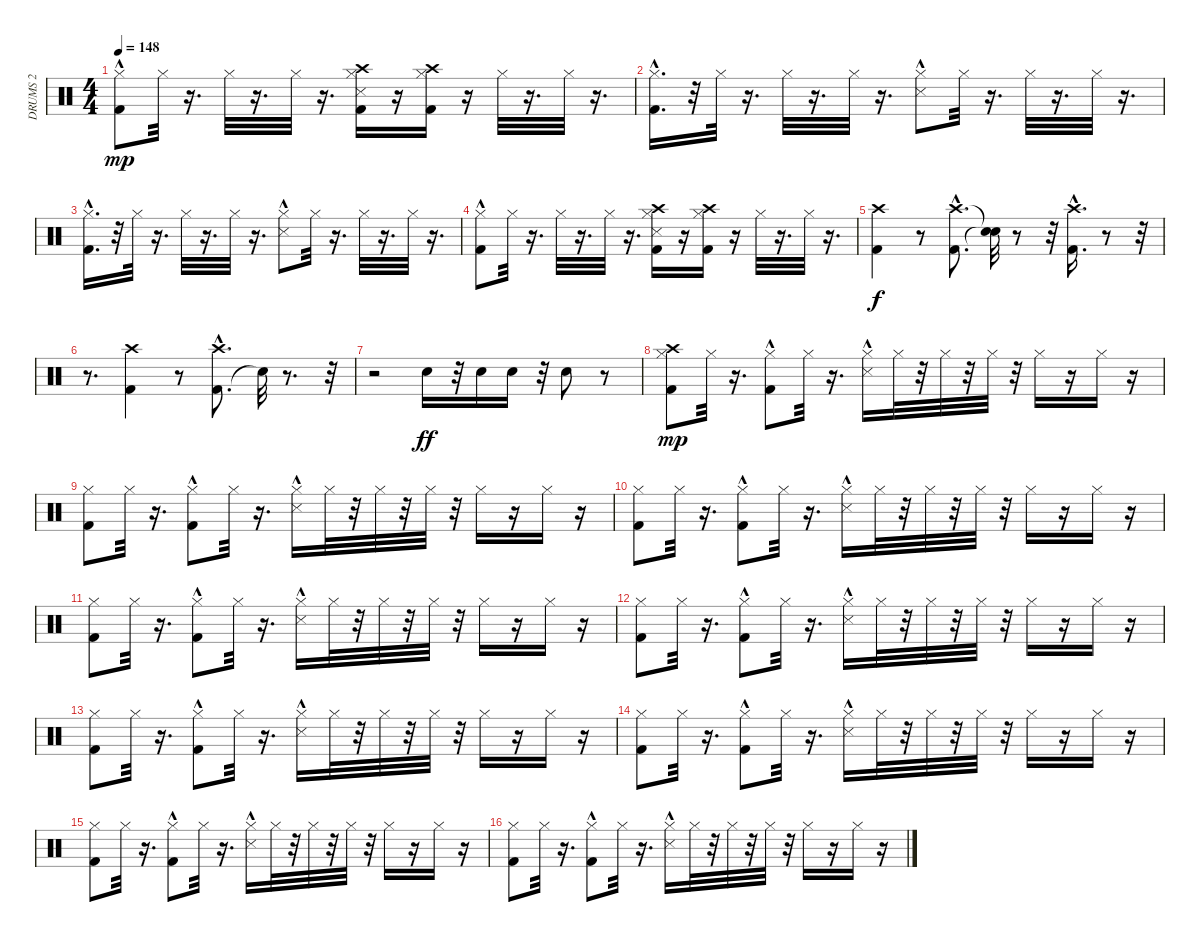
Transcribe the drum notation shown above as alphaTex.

\track ("DRUMS 2" "DRUMS 2") {instrument percussion}
\staff {score}
\articulation defaults
\ts (4 4)
\tempo 148
\clef neutral
\ks c
("Kick (hit) 2"{hac} "Hi-Hat (closed)").8{dy mp} "Hi-Hat (closed)".32 r.16{d} "Hi-Hat (closed)".32 r.16{d} "Hi-Hat (closed)".32 r.16{d} ("Snare (side stick) 3" "Kick (hit) 2" "Hi-Hat (closed)" "Crash high (hit)").16 r.16 ("Kick (hit) 2" "Hi-Hat (closed)" "Crash high (hit)").16 r.16 "Hi-Hat (closed)".32 r.16{d} "Hi-Hat (closed)".32 r.16{d} |
("Kick (hit) 2"{hac} "Hi-Hat (closed)").16{d} r.32 "Hi-Hat (closed)".32 r.16{d} "Hi-Hat (closed)".32 r.16{d} "Hi-Hat (closed)".32 r.16{d} ("Snare (side stick) 3"{hac} "Hi-Hat (closed)").8 "Hi-Hat (closed)".32 r.16{d} "Hi-Hat (closed)".32 r.16{d} "Hi-Hat (closed)".32 r.16{d} |
("Kick (hit) 2"{hac} "Hi-Hat (closed)").16{d} r.32 "Hi-Hat (closed)".32 r.16{d} "Hi-Hat (closed)".32 r.16{d} "Hi-Hat (closed)".32 r.16{d} ("Snare (side stick) 3"{hac} "Hi-Hat (closed)").8 "Hi-Hat (closed)".32 r.16{d} "Hi-Hat (closed)".32 r.16{d} "Hi-Hat (closed)".32 r.16{d} |
("Kick (hit) 2"{hac} "Hi-Hat (closed)").8 "Hi-Hat (closed)".32 r.16{d} "Hi-Hat (closed)".32 r.16{d} "Hi-Hat (closed)".32 r.16{d} ("Snare (side stick) 3" "Kick (hit) 2" "Hi-Hat (closed)" "Crash high (hit)").16 r.16 ("Kick (hit) 2" "Hi-Hat (closed)" "Crash high (hit)").16 r.16 "Hi-Hat (closed)".32 r.16{d} "Hi-Hat (closed)".32 r.16{d} |
("Kick (hit) 2" "Crash high (hit)").4{dy f} r.8 ("Kick (hit) 2"{hac} "Crash high (hit)"{hac}).8{d} ("Snare (hit)"{t} "Snare (hit)"{t}).32 r.8 r.32 ("Kick (hit) 2"{hac} "Crash high (hit)"{hac}).16{d} r.8 r.32 |
r.8{d} ("Kick (hit) 2" "Crash high (hit)").4 r.8 ("Kick (hit) 2"{hac} "Crash high (hit)").8{d} "Snare (hit)"{t}.32 r.8{d} r.32 |
r.2 "Snare (hit) 2".16{dy ff} r.32 "Snare (hit) 2".16 "Snare (hit) 2".16 r.32 "Snare (hit) 2".8 r.8 |
("Kick (hit) 2" "Hi-Hat (closed)" "Crash high (hit)").8{dy mp} "Hi-Hat (closed)".32 r.16{d} ("Kick (hit) 2"{hac} "Hi-Hat (closed)").8 "Hi-Hat (closed)".32 r.16{d} ("Snare (side stick) 3"{hac} "Hi-Hat (closed)").16 "Hi-Hat (closed)".32 r.32 "Hi-Hat (closed)".32 r.32 "Hi-Hat (closed)".32 r.32 "Hi-Hat (closed)".16 r.16 "Hi-Hat (closed)".16 r.16 |
("Kick (hit) 2" "Hi-Hat (closed)").8 "Hi-Hat (closed)".32 r.16{d} ("Kick (hit) 2"{hac} "Hi-Hat (closed)").8 "Hi-Hat (closed)".32 r.16{d} ("Snare (side stick) 3"{hac} "Hi-Hat (closed)").16 "Hi-Hat (closed)".32 r.32 "Hi-Hat (closed)".32 r.32 "Hi-Hat (closed)".32 r.32 "Hi-Hat (closed)".16 r.16 "Hi-Hat (closed)".16 r.16 |
("Kick (hit) 2" "Hi-Hat (closed)").8 "Hi-Hat (closed)".32 r.16{d} ("Kick (hit) 2"{hac} "Hi-Hat (closed)").8 "Hi-Hat (closed)".32 r.16{d} ("Snare (side stick) 3"{hac} "Hi-Hat (closed)").16 "Hi-Hat (closed)".32 r.32 "Hi-Hat (closed)".32 r.32 "Hi-Hat (closed)".32 r.32 "Hi-Hat (closed)".16 r.16 "Hi-Hat (closed)".16 r.16 |
("Kick (hit) 2" "Hi-Hat (closed)").8 "Hi-Hat (closed)".32 r.16{d} ("Kick (hit) 2"{hac} "Hi-Hat (closed)").8 "Hi-Hat (closed)".32 r.16{d} ("Snare (side stick) 3"{hac} "Hi-Hat (closed)").16 "Hi-Hat (closed)".32 r.32 "Hi-Hat (closed)".32 r.32 "Hi-Hat (closed)".32 r.32 "Hi-Hat (closed)".16 r.16 "Hi-Hat (closed)".16 r.16 |
("Kick (hit) 2" "Hi-Hat (closed)").8 "Hi-Hat (closed)".32 r.16{d} ("Kick (hit) 2"{hac} "Hi-Hat (closed)").8 "Hi-Hat (closed)".32 r.16{d} ("Snare (side stick) 3"{hac} "Hi-Hat (closed)").16 "Hi-Hat (closed)".32 r.32 "Hi-Hat (closed)".32 r.32 "Hi-Hat (closed)".32 r.32 "Hi-Hat (closed)".16 r.16 "Hi-Hat (closed)".16 r.16 |
("Kick (hit) 2" "Hi-Hat (closed)").8 "Hi-Hat (closed)".32 r.16{d} ("Kick (hit) 2"{hac} "Hi-Hat (closed)").8 "Hi-Hat (closed)".32 r.16{d} ("Snare (side stick) 3"{hac} "Hi-Hat (closed)").16 "Hi-Hat (closed)".32 r.32 "Hi-Hat (closed)".32 r.32 "Hi-Hat (closed)".32 r.32 "Hi-Hat (closed)".16 r.16 "Hi-Hat (closed)".16 r.16 |
("Kick (hit) 2" "Hi-Hat (closed)").8 "Hi-Hat (closed)".32 r.16{d} ("Kick (hit) 2"{hac} "Hi-Hat (closed)").8 "Hi-Hat (closed)".32 r.16{d} ("Snare (side stick) 3"{hac} "Hi-Hat (closed)").16 "Hi-Hat (closed)".32 r.32 "Hi-Hat (closed)".32 r.32 "Hi-Hat (closed)".32 r.32 "Hi-Hat (closed)".16 r.16 "Hi-Hat (closed)".16 r.16 |
("Kick (hit) 2" "Hi-Hat (closed)").8 "Hi-Hat (closed)".32 r.16{d} ("Kick (hit) 2"{hac} "Hi-Hat (closed)").8 "Hi-Hat (closed)".32 r.16{d} ("Snare (side stick) 3"{hac} "Hi-Hat (closed)").16 "Hi-Hat (closed)".32 r.32 "Hi-Hat (closed)".32 r.32 "Hi-Hat (closed)".32 r.32 "Hi-Hat (closed)".16 r.16 "Hi-Hat (closed)".16 r.16 |
("Kick (hit) 2" "Hi-Hat (closed)").8 "Hi-Hat (closed)".32 r.16{d} ("Kick (hit) 2"{hac} "Hi-Hat (closed)").8 "Hi-Hat (closed)".32 r.16{d} ("Snare (side stick) 3"{hac} "Hi-Hat (closed)").16 "Hi-Hat (closed)".32 r.32 "Hi-Hat (closed)".32 r.32 "Hi-Hat (closed)".32 r.32 "Hi-Hat (closed)".16 r.16 "Hi-Hat (closed)".16 r.16
